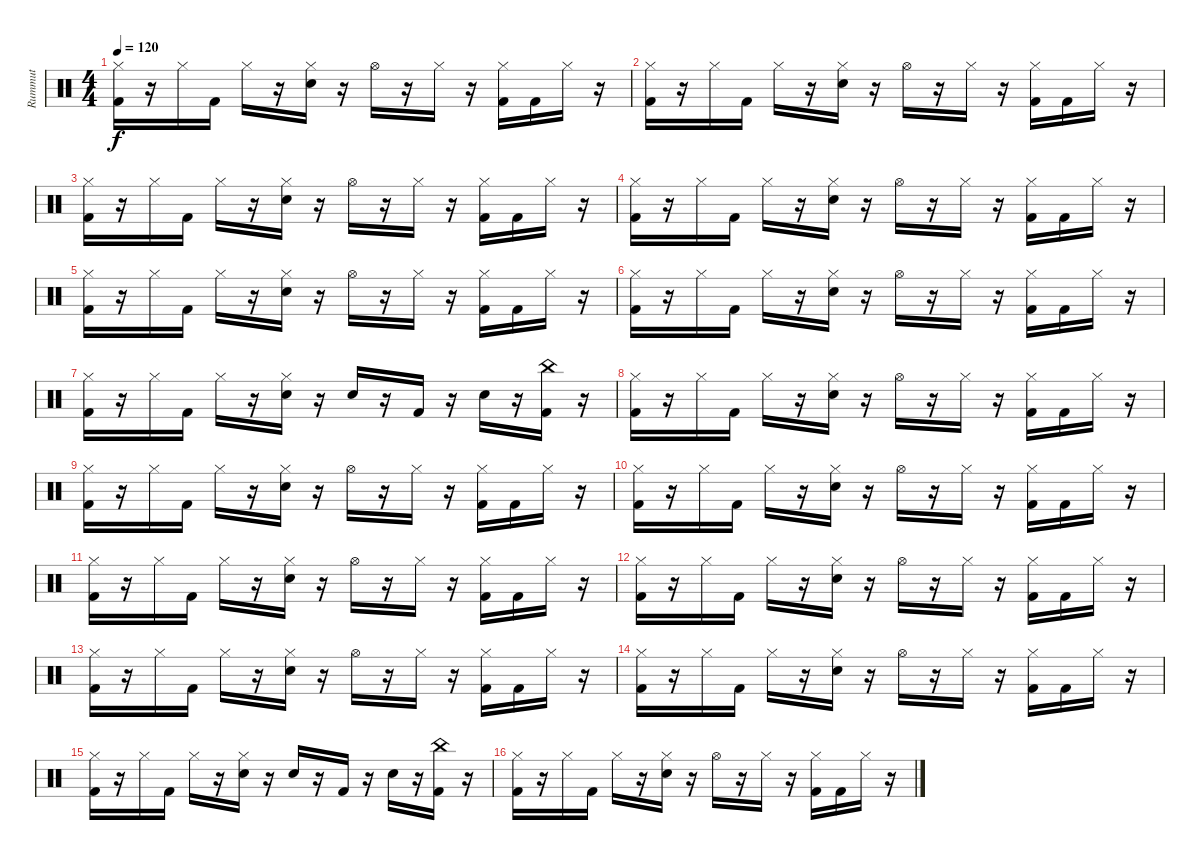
\track ("Rummut" "Rummut") {instrument percussion}
\staff {score}
\articulation defaults
\ts (4 4)
\tempo 120
\clef neutral
\ks c
("Hi-Hat (closed)" "Kick (hit) 2").16{dy f} r.16 "Hi-Hat (closed)".16 "Kick (hit) 2".16 "Hi-Hat (closed)".16 r.16 ("Hi-Hat (closed)" "Snare (hit) 2").16 r.16 "Hi-Hat (open)".16 r.16 "Hi-Hat (closed)".16 r.16 ("Hi-Hat (closed)" "Kick (hit) 2").16 "Kick (hit) 2".16 "Hi-Hat (closed)".16 r.16 |
("Hi-Hat (closed)" "Kick (hit) 2").16 r.16 "Hi-Hat (closed)".16 "Kick (hit) 2".16 "Hi-Hat (closed)".16 r.16 ("Hi-Hat (closed)" "Snare (hit) 2").16 r.16 "Hi-Hat (open)".16 r.16 "Hi-Hat (closed)".16 r.16 ("Hi-Hat (closed)" "Kick (hit) 2").16 "Kick (hit) 2".16 "Hi-Hat (closed)".16 r.16 |
("Hi-Hat (closed)" "Kick (hit) 2").16 r.16 "Hi-Hat (closed)".16 "Kick (hit) 2".16 "Hi-Hat (closed)".16 r.16 ("Hi-Hat (closed)" "Snare (hit) 2").16 r.16 "Hi-Hat (open)".16 r.16 "Hi-Hat (closed)".16 r.16 ("Hi-Hat (closed)" "Kick (hit) 2").16 "Kick (hit) 2".16 "Hi-Hat (closed)".16 r.16 |
("Hi-Hat (closed)" "Kick (hit) 2").16 r.16 "Hi-Hat (closed)".16 "Kick (hit) 2".16 "Hi-Hat (closed)".16 r.16 ("Hi-Hat (closed)" "Snare (hit) 2").16 r.16 "Hi-Hat (open)".16 r.16 "Hi-Hat (closed)".16 r.16 ("Hi-Hat (closed)" "Kick (hit) 2").16 "Kick (hit) 2".16 "Hi-Hat (closed)".16 r.16 |
("Hi-Hat (closed)" "Kick (hit) 2").16 r.16 "Hi-Hat (closed)".16 "Kick (hit) 2".16 "Hi-Hat (closed)".16 r.16 ("Hi-Hat (closed)" "Snare (hit) 2").16 r.16 "Hi-Hat (open)".16 r.16 "Hi-Hat (closed)".16 r.16 ("Hi-Hat (closed)" "Kick (hit) 2").16 "Kick (hit) 2".16 "Hi-Hat (closed)".16 r.16 |
("Hi-Hat (closed)" "Kick (hit) 2").16 r.16 "Hi-Hat (closed)".16 "Kick (hit) 2".16 "Hi-Hat (closed)".16 r.16 ("Hi-Hat (closed)" "Snare (hit) 2").16 r.16 "Hi-Hat (open)".16 r.16 "Hi-Hat (closed)".16 r.16 ("Hi-Hat (closed)" "Kick (hit) 2").16 "Kick (hit) 2".16 "Hi-Hat (closed)".16 r.16 |
("Hi-Hat (closed)" "Kick (hit) 2").16 r.16 "Hi-Hat (closed)".16 "Kick (hit) 2".16 "Hi-Hat (closed)".16 r.16 ("Hi-Hat (closed)" "Snare (hit) 2").16 r.16 "Snare (hit) 2".16 r.16 "Kick (hit) 2".16 r.16 "Snare (hit) 2".16 r.16 ("China (hit)" "Kick (hit) 2").16 r.16 |
("Hi-Hat (closed)" "Kick (hit) 2").16 r.16 "Hi-Hat (closed)".16 "Kick (hit) 2".16 "Hi-Hat (closed)".16 r.16 ("Hi-Hat (closed)" "Snare (hit) 2").16 r.16 "Hi-Hat (open)".16 r.16 "Hi-Hat (closed)".16 r.16 ("Hi-Hat (closed)" "Kick (hit) 2").16 "Kick (hit) 2".16 "Hi-Hat (closed)".16 r.16 |
("Hi-Hat (closed)" "Kick (hit) 2").16 r.16 "Hi-Hat (closed)".16 "Kick (hit) 2".16 "Hi-Hat (closed)".16 r.16 ("Hi-Hat (closed)" "Snare (hit) 2").16 r.16 "Hi-Hat (open)".16 r.16 "Hi-Hat (closed)".16 r.16 ("Hi-Hat (closed)" "Kick (hit) 2").16 "Kick (hit) 2".16 "Hi-Hat (closed)".16 r.16 |
("Hi-Hat (closed)" "Kick (hit) 2").16 r.16 "Hi-Hat (closed)".16 "Kick (hit) 2".16 "Hi-Hat (closed)".16 r.16 ("Hi-Hat (closed)" "Snare (hit) 2").16 r.16 "Hi-Hat (open)".16 r.16 "Hi-Hat (closed)".16 r.16 ("Hi-Hat (closed)" "Kick (hit) 2").16 "Kick (hit) 2".16 "Hi-Hat (closed)".16 r.16 |
("Hi-Hat (closed)" "Kick (hit) 2").16 r.16 "Hi-Hat (closed)".16 "Kick (hit) 2".16 "Hi-Hat (closed)".16 r.16 ("Hi-Hat (closed)" "Snare (hit) 2").16 r.16 "Hi-Hat (open)".16 r.16 "Hi-Hat (closed)".16 r.16 ("Hi-Hat (closed)" "Kick (hit) 2").16 "Kick (hit) 2".16 "Hi-Hat (closed)".16 r.16 |
("Hi-Hat (closed)" "Kick (hit) 2").16 r.16 "Hi-Hat (closed)".16 "Kick (hit) 2".16 "Hi-Hat (closed)".16 r.16 ("Hi-Hat (closed)" "Snare (hit) 2").16 r.16 "Hi-Hat (open)".16 r.16 "Hi-Hat (closed)".16 r.16 ("Hi-Hat (closed)" "Kick (hit) 2").16 "Kick (hit) 2".16 "Hi-Hat (closed)".16 r.16 |
("Hi-Hat (closed)" "Kick (hit) 2").16 r.16 "Hi-Hat (closed)".16 "Kick (hit) 2".16 "Hi-Hat (closed)".16 r.16 ("Hi-Hat (closed)" "Snare (hit) 2").16 r.16 "Hi-Hat (open)".16 r.16 "Hi-Hat (closed)".16 r.16 ("Hi-Hat (closed)" "Kick (hit) 2").16 "Kick (hit) 2".16 "Hi-Hat (closed)".16 r.16 |
("Hi-Hat (closed)" "Kick (hit) 2").16 r.16 "Hi-Hat (closed)".16 "Kick (hit) 2".16 "Hi-Hat (closed)".16 r.16 ("Hi-Hat (closed)" "Snare (hit) 2").16 r.16 "Hi-Hat (open)".16 r.16 "Hi-Hat (closed)".16 r.16 ("Hi-Hat (closed)" "Kick (hit) 2").16 "Kick (hit) 2".16 "Hi-Hat (closed)".16 r.16 |
("Hi-Hat (closed)" "Kick (hit) 2").16 r.16 "Hi-Hat (closed)".16 "Kick (hit) 2".16 "Hi-Hat (closed)".16 r.16 ("Hi-Hat (closed)" "Snare (hit) 2").16 r.16 "Snare (hit) 2".16 r.16 "Kick (hit) 2".16 r.16 "Snare (hit) 2".16 r.16 ("China (hit)" "Kick (hit) 2").16 r.16 |
("Hi-Hat (closed)" "Kick (hit) 2").16 r.16 "Hi-Hat (closed)".16 "Kick (hit) 2".16 "Hi-Hat (closed)".16 r.16 ("Hi-Hat (closed)" "Snare (hit) 2").16 r.16 "Hi-Hat (open)".16 r.16 "Hi-Hat (closed)".16 r.16 ("Hi-Hat (closed)" "Kick (hit) 2").16 "Kick (hit) 2".16 "Hi-Hat (closed)".16 r.16
